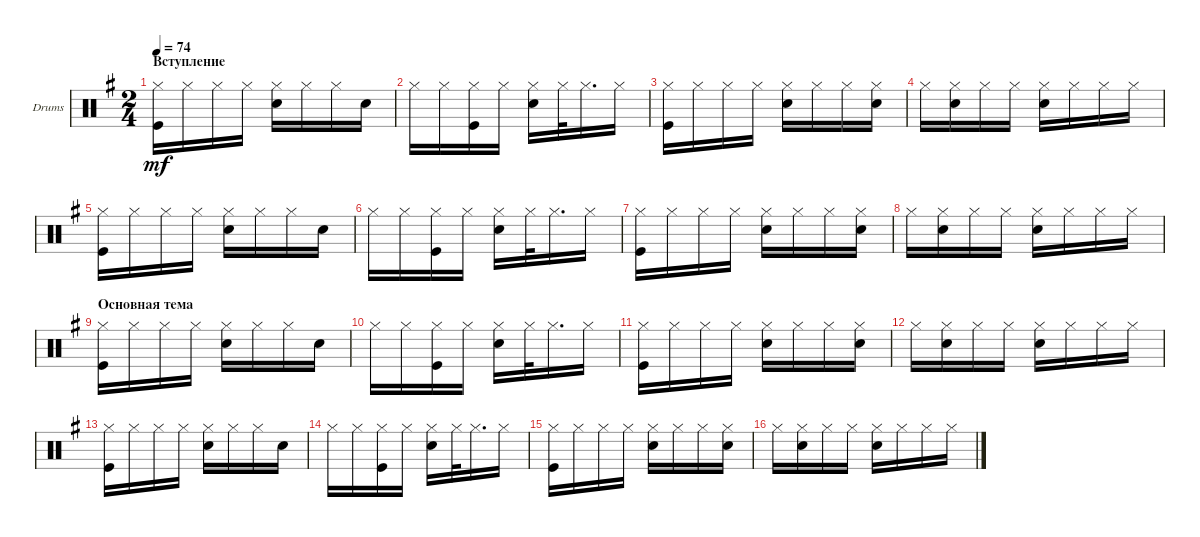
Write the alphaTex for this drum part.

\defaultSystemsLayout 4
\bracketExtendMode groupsimilarinstruments
\firstSystemTrackNameOrientation horizontal
\otherSystemsTrackNameOrientation horizontal
\track ("Drumkit" "Drums") {instrument percussion}
\staff {score}
\articulation defaults
\ts (2 4)
\section ("" "Вступление")
\tempo 74
\clef neutral
\scale
0.474178
\ks eminor
("Hi-Hat (closed)" "Kick (hit)").16{dy mf} "Hi-Hat (closed)".16 "Hi-Hat (closed)".16 "Hi-Hat (closed)".16 ("Hi-Hat (closed)" "Snare (hit) 2").16 "Hi-Hat (closed)".16 "Hi-Hat (closed)".16 "Snare (hit) 2".16 |
\scale
0.262911 "Hi-Hat (closed)".16 "Hi-Hat (closed)".16 ("Hi-Hat (closed)" "Kick (hit)").16 "Hi-Hat (closed)".16 ("Hi-Hat (closed)" "Snare (hit) 2").16 "Hi-Hat (closed)".32 "Hi-Hat (closed)".16{d} "Hi-Hat (closed)".16 |
\scale
0.262911 ("Hi-Hat (closed)" "Kick (hit)").16 "Hi-Hat (closed)".16 "Hi-Hat (closed)".16 "Hi-Hat (closed)".16 ("Hi-Hat (closed)" "Snare (hit) 2").16 "Hi-Hat (closed)".16 "Hi-Hat (closed)".16 ("Hi-Hat (closed)" "Snare (hit) 2").16 |
\scale
0.333333 "Hi-Hat (closed)".16 ("Hi-Hat (closed)" "Snare (hit) 2").16 "Hi-Hat (closed)".16 "Hi-Hat (closed)".16 ("Hi-Hat (closed)" "Snare (hit) 2").16 "Hi-Hat (closed)".16 "Hi-Hat (closed)".16 "Hi-Hat (closed)".16 |
\scale
0.333333 ("Hi-Hat (closed)" "Kick (hit)").16 "Hi-Hat (closed)".16 "Hi-Hat (closed)".16 "Hi-Hat (closed)".16 ("Hi-Hat (closed)" "Snare (hit) 2").16 "Hi-Hat (closed)".16 "Hi-Hat (closed)".16 "Snare (hit) 2".16 |
\scale
0.333333 "Hi-Hat (closed)".16 "Hi-Hat (closed)".16 ("Hi-Hat (closed)" "Kick (hit)").16 "Hi-Hat (closed)".16 ("Hi-Hat (closed)" "Snare (hit) 2").16 "Hi-Hat (closed)".32 "Hi-Hat (closed)".16{d} "Hi-Hat (closed)".16 |
("Hi-Hat (closed)" "Kick (hit)").16 "Hi-Hat (closed)".16 "Hi-Hat (closed)".16 "Hi-Hat (closed)".16 ("Hi-Hat (closed)" "Snare (hit) 2").16 "Hi-Hat (closed)".16 "Hi-Hat (closed)".16 ("Hi-Hat (closed)" "Snare (hit) 2").16 |
"Hi-Hat (closed)".16 ("Hi-Hat (closed)" "Snare (hit) 2").16 "Hi-Hat (closed)".16 "Hi-Hat (closed)".16 ("Hi-Hat (closed)" "Snare (hit) 2").16 "Hi-Hat (closed)".16 "Hi-Hat (closed)".16 "Hi-Hat (closed)".16 |
\section ("" "Основная тема")
("Hi-Hat (closed)" "Kick (hit)").16 "Hi-Hat (closed)".16 "Hi-Hat (closed)".16 "Hi-Hat (closed)".16 ("Hi-Hat (closed)" "Snare (hit) 2").16 "Hi-Hat (closed)".16 "Hi-Hat (closed)".16 "Snare (hit) 2".16 |
"Hi-Hat (closed)".16 "Hi-Hat (closed)".16 ("Hi-Hat (closed)" "Kick (hit)").16 "Hi-Hat (closed)".16 ("Hi-Hat (closed)" "Snare (hit) 2").16 "Hi-Hat (closed)".32 "Hi-Hat (closed)".16{d} "Hi-Hat (closed)".16 |
("Hi-Hat (closed)" "Kick (hit)").16 "Hi-Hat (closed)".16 "Hi-Hat (closed)".16 "Hi-Hat (closed)".16 ("Hi-Hat (closed)" "Snare (hit) 2").16 "Hi-Hat (closed)".16 "Hi-Hat (closed)".16 ("Hi-Hat (closed)" "Snare (hit) 2").16 |
"Hi-Hat (closed)".16 ("Hi-Hat (closed)" "Snare (hit) 2").16 "Hi-Hat (closed)".16 "Hi-Hat (closed)".16 ("Hi-Hat (closed)" "Snare (hit) 2").16 "Hi-Hat (closed)".16 "Hi-Hat (closed)".16 "Hi-Hat (closed)".16 |
("Hi-Hat (closed)" "Kick (hit)").16 "Hi-Hat (closed)".16 "Hi-Hat (closed)".16 "Hi-Hat (closed)".16 ("Hi-Hat (closed)" "Snare (hit) 2").16 "Hi-Hat (closed)".16 "Hi-Hat (closed)".16 "Snare (hit) 2".16 |
"Hi-Hat (closed)".16 "Hi-Hat (closed)".16 ("Hi-Hat (closed)" "Kick (hit)").16 "Hi-Hat (closed)".16 ("Hi-Hat (closed)" "Snare (hit) 2").16 "Hi-Hat (closed)".32 "Hi-Hat (closed)".16{d} "Hi-Hat (closed)".16 |
("Hi-Hat (closed)" "Kick (hit)").16 "Hi-Hat (closed)".16 "Hi-Hat (closed)".16 "Hi-Hat (closed)".16 ("Hi-Hat (closed)" "Snare (hit) 2").16 "Hi-Hat (closed)".16 "Hi-Hat (closed)".16 ("Hi-Hat (closed)" "Snare (hit) 2").16 |
"Hi-Hat (closed)".16 ("Hi-Hat (closed)" "Snare (hit) 2").16 "Hi-Hat (closed)".16 "Hi-Hat (closed)".16 ("Hi-Hat (closed)" "Snare (hit) 2").16 "Hi-Hat (closed)".16 "Hi-Hat (closed)".16 "Hi-Hat (closed)".16
